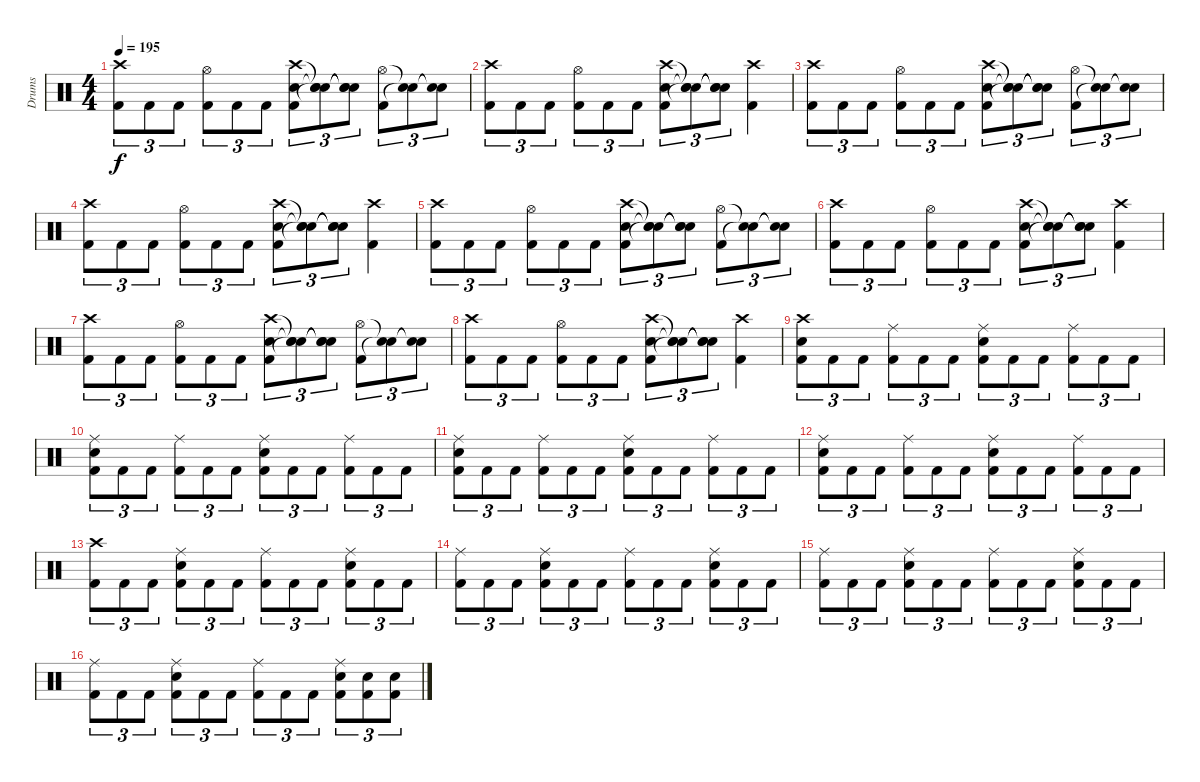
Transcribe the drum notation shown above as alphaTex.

\track ("Drums" "Drums") {instrument percussion}
\staff {score}
\articulation defaults
\ts (4 4)
\tempo 195
\clef neutral
\ks c
("Crash high (hit)" "Kick (hit) 2").8{tu (3 2) dy f} "Kick (hit) 2".8{tu (3 2)} "Kick (hit) 2".8{tu (3 2)} ("Hi-Hat (open)" "Kick (hit) 2").8{tu (3 2)} "Kick (hit) 2".8{tu (3 2)} "Kick (hit) 2".8{tu (3 2)} ("Crash high (hit)" "Snare (hit) 2" "Kick (hit) 2").8{tu (3 2)} ("Snare (hit)"{t} "Snare (hit)"{t} "Snare (hit)"{t}).8{tu (3 2)} ("Snare (hit)"{t} "Snare (hit)"{t} "Snare (hit)"{t}).8{tu (3 2)} ("Hi-Hat (open)" "Kick (hit) 2").8{tu (3 2)} ("Snare (hit)"{t} "Snare (hit)"{t}).8{tu (3 2)} ("Snare (hit)"{t} "Snare (hit)"{t}).8{tu (3 2)} |
("Crash high (hit)" "Kick (hit) 2").8{tu (3 2)} "Kick (hit) 2".8{tu (3 2)} "Kick (hit) 2".8{tu (3 2)} ("Hi-Hat (open)" "Kick (hit) 2").8{tu (3 2)} "Kick (hit) 2".8{tu (3 2)} "Kick (hit) 2".8{tu (3 2)} ("Crash high (hit)" "Snare (hit) 2" "Kick (hit) 2").8{tu (3 2)} ("Snare (hit)"{t} "Snare (hit)"{t} "Snare (hit)"{t}).8{tu (3 2)} ("Snare (hit)"{t} "Snare (hit)"{t} "Snare (hit)"{t}).8{tu (3 2)} ("Crash high (hit)" "Kick (hit) 2").4 |
("Crash high (hit)" "Kick (hit) 2").8{tu (3 2)} "Kick (hit) 2".8{tu (3 2)} "Kick (hit) 2".8{tu (3 2)} ("Hi-Hat (open)" "Kick (hit) 2").8{tu (3 2)} "Kick (hit) 2".8{tu (3 2)} "Kick (hit) 2".8{tu (3 2)} ("Crash high (hit)" "Snare (hit) 2" "Kick (hit) 2").8{tu (3 2)} ("Snare (hit)"{t} "Snare (hit)"{t} "Snare (hit)"{t}).8{tu (3 2)} ("Snare (hit)"{t} "Snare (hit)"{t} "Snare (hit)"{t}).8{tu (3 2)} ("Hi-Hat (open)" "Kick (hit) 2").8{tu (3 2)} ("Snare (hit)"{t} "Snare (hit)"{t}).8{tu (3 2)} ("Snare (hit)"{t} "Snare (hit)"{t}).8{tu (3 2)} |
("Crash high (hit)" "Kick (hit) 2").8{tu (3 2)} "Kick (hit) 2".8{tu (3 2)} "Kick (hit) 2".8{tu (3 2)} ("Hi-Hat (open)" "Kick (hit) 2").8{tu (3 2)} "Kick (hit) 2".8{tu (3 2)} "Kick (hit) 2".8{tu (3 2)} ("Crash high (hit)" "Snare (hit) 2" "Kick (hit) 2").8{tu (3 2)} ("Snare (hit)"{t} "Snare (hit)"{t} "Snare (hit)"{t}).8{tu (3 2)} ("Snare (hit)"{t} "Snare (hit)"{t} "Snare (hit)"{t}).8{tu (3 2)} ("Crash high (hit)" "Kick (hit) 2").4 |
("Crash high (hit)" "Kick (hit) 2").8{tu (3 2)} "Kick (hit) 2".8{tu (3 2)} "Kick (hit) 2".8{tu (3 2)} ("Hi-Hat (open)" "Kick (hit) 2").8{tu (3 2)} "Kick (hit) 2".8{tu (3 2)} "Kick (hit) 2".8{tu (3 2)} ("Crash high (hit)" "Snare (hit) 2" "Kick (hit) 2").8{tu (3 2)} ("Snare (hit)"{t} "Snare (hit)"{t} "Snare (hit)"{t}).8{tu (3 2)} ("Snare (hit)"{t} "Snare (hit)"{t} "Snare (hit)"{t}).8{tu (3 2)} ("Hi-Hat (open)" "Kick (hit) 2").8{tu (3 2)} ("Snare (hit)"{t} "Snare (hit)"{t}).8{tu (3 2)} ("Snare (hit)"{t} "Snare (hit)"{t}).8{tu (3 2)} |
("Crash high (hit)" "Kick (hit) 2").8{tu (3 2)} "Kick (hit) 2".8{tu (3 2)} "Kick (hit) 2".8{tu (3 2)} ("Hi-Hat (open)" "Kick (hit) 2").8{tu (3 2)} "Kick (hit) 2".8{tu (3 2)} "Kick (hit) 2".8{tu (3 2)} ("Crash high (hit)" "Snare (hit) 2" "Kick (hit) 2").8{tu (3 2)} ("Snare (hit)"{t} "Snare (hit)"{t} "Snare (hit)"{t}).8{tu (3 2)} ("Snare (hit)"{t} "Snare (hit)"{t} "Snare (hit)"{t}).8{tu (3 2)} ("Crash high (hit)" "Kick (hit) 2").4 |
("Crash high (hit)" "Kick (hit) 2").8{tu (3 2)} "Kick (hit) 2".8{tu (3 2)} "Kick (hit) 2".8{tu (3 2)} ("Hi-Hat (open)" "Kick (hit) 2").8{tu (3 2)} "Kick (hit) 2".8{tu (3 2)} "Kick (hit) 2".8{tu (3 2)} ("Crash high (hit)" "Snare (hit) 2" "Kick (hit) 2").8{tu (3 2)} ("Snare (hit)"{t} "Snare (hit)"{t} "Snare (hit)"{t}).8{tu (3 2)} ("Snare (hit)"{t} "Snare (hit)"{t} "Snare (hit)"{t}).8{tu (3 2)} ("Hi-Hat (open)" "Kick (hit) 2").8{tu (3 2)} ("Snare (hit)"{t} "Snare (hit)"{t}).8{tu (3 2)} ("Snare (hit)"{t} "Snare (hit)"{t}).8{tu (3 2)} |
("Crash high (hit)" "Kick (hit) 2").8{tu (3 2)} "Kick (hit) 2".8{tu (3 2)} "Kick (hit) 2".8{tu (3 2)} ("Hi-Hat (open)" "Kick (hit) 2").8{tu (3 2)} "Kick (hit) 2".8{tu (3 2)} "Kick (hit) 2".8{tu (3 2)} ("Crash high (hit)" "Snare (hit) 2" "Kick (hit) 2").8{tu (3 2)} ("Snare (hit)"{t} "Snare (hit)"{t} "Snare (hit)"{t}).8{tu (3 2)} ("Snare (hit)"{t} "Snare (hit)"{t} "Snare (hit)"{t}).8{tu (3 2)} ("Crash high (hit)" "Kick (hit) 2").4 |
("Crash high (hit)" "Snare (hit) 2" "Kick (hit) 2").8{tu (3 2)} "Kick (hit) 2".8{tu (3 2)} "Kick (hit) 2".8{tu (3 2)} ("Ride (middle)" "Kick (hit) 2").8{tu (3 2)} "Kick (hit) 2".8{tu (3 2)} "Kick (hit) 2".8{tu (3 2)} ("Ride (middle)" "Snare (hit) 2" "Kick (hit) 2").8{tu (3 2)} "Kick (hit) 2".8{tu (3 2)} "Kick (hit) 2".8{tu (3 2)} ("Ride (middle)" "Kick (hit) 2").8{tu (3 2)} "Kick (hit) 2".8{tu (3 2)} "Kick (hit) 2".8{tu (3 2)} |
("Ride (middle)" "Snare (hit) 2" "Kick (hit) 2").8{tu (3 2)} "Kick (hit) 2".8{tu (3 2)} "Kick (hit) 2".8{tu (3 2)} ("Ride (middle)" "Kick (hit) 2").8{tu (3 2)} "Kick (hit) 2".8{tu (3 2)} "Kick (hit) 2".8{tu (3 2)} ("Ride (middle)" "Snare (hit) 2" "Kick (hit) 2").8{tu (3 2)} "Kick (hit) 2".8{tu (3 2)} "Kick (hit) 2".8{tu (3 2)} ("Ride (middle)" "Kick (hit) 2").8{tu (3 2)} "Kick (hit) 2".8{tu (3 2)} "Kick (hit) 2".8{tu (3 2)} |
("Ride (middle)" "Snare (hit) 2" "Kick (hit) 2").8{tu (3 2)} "Kick (hit) 2".8{tu (3 2)} "Kick (hit) 2".8{tu (3 2)} ("Ride (middle)" "Kick (hit) 2").8{tu (3 2)} "Kick (hit) 2".8{tu (3 2)} "Kick (hit) 2".8{tu (3 2)} ("Ride (middle)" "Snare (hit) 2" "Kick (hit) 2").8{tu (3 2)} "Kick (hit) 2".8{tu (3 2)} "Kick (hit) 2".8{tu (3 2)} ("Ride (middle)" "Kick (hit) 2").8{tu (3 2)} "Kick (hit) 2".8{tu (3 2)} "Kick (hit) 2".8{tu (3 2)} |
("Ride (middle)" "Snare (hit) 2" "Kick (hit) 2").8{tu (3 2)} "Kick (hit) 2".8{tu (3 2)} "Kick (hit) 2".8{tu (3 2)} ("Ride (middle)" "Kick (hit) 2").8{tu (3 2)} "Kick (hit) 2".8{tu (3 2)} "Kick (hit) 2".8{tu (3 2)} ("Ride (middle)" "Snare (hit) 2" "Kick (hit) 2").8{tu (3 2)} "Kick (hit) 2".8{tu (3 2)} "Kick (hit) 2".8{tu (3 2)} ("Ride (middle)" "Kick (hit) 2").8{tu (3 2)} "Kick (hit) 2".8{tu (3 2)} "Kick (hit) 2".8{tu (3 2)} |
("Crash high (hit)" "Kick (hit) 2").8{tu (3 2)} "Kick (hit) 2".8{tu (3 2)} "Kick (hit) 2".8{tu (3 2)} ("Ride (middle)" "Snare (hit) 2" "Kick (hit) 2").8{tu (3 2)} "Kick (hit) 2".8{tu (3 2)} "Kick (hit) 2".8{tu (3 2)} ("Ride (middle)" "Kick (hit) 2").8{tu (3 2)} "Kick (hit) 2".8{tu (3 2)} "Kick (hit) 2".8{tu (3 2)} ("Ride (middle)" "Snare (hit) 2" "Kick (hit) 2").8{tu (3 2)} "Kick (hit) 2".8{tu (3 2)} "Kick (hit) 2".8{tu (3 2)} |
("Ride (middle)" "Kick (hit) 2").8{tu (3 2)} "Kick (hit) 2".8{tu (3 2)} "Kick (hit) 2".8{tu (3 2)} ("Ride (middle)" "Snare (hit) 2" "Kick (hit) 2").8{tu (3 2)} "Kick (hit) 2".8{tu (3 2)} "Kick (hit) 2".8{tu (3 2)} ("Ride (middle)" "Kick (hit) 2").8{tu (3 2)} "Kick (hit) 2".8{tu (3 2)} "Kick (hit) 2".8{tu (3 2)} ("Ride (middle)" "Snare (hit) 2" "Kick (hit) 2").8{tu (3 2)} "Kick (hit) 2".8{tu (3 2)} "Kick (hit) 2".8{tu (3 2)} |
("Ride (middle)" "Kick (hit) 2").8{tu (3 2)} "Kick (hit) 2".8{tu (3 2)} "Kick (hit) 2".8{tu (3 2)} ("Ride (middle)" "Snare (hit) 2" "Kick (hit) 2").8{tu (3 2)} "Kick (hit) 2".8{tu (3 2)} "Kick (hit) 2".8{tu (3 2)} ("Ride (middle)" "Kick (hit) 2").8{tu (3 2)} "Kick (hit) 2".8{tu (3 2)} "Kick (hit) 2".8{tu (3 2)} ("Ride (middle)" "Snare (hit) 2" "Kick (hit) 2").8{tu (3 2)} "Kick (hit) 2".8{tu (3 2)} "Kick (hit) 2".8{tu (3 2)} |
("Ride (middle)" "Kick (hit) 2").8{tu (3 2)} "Kick (hit) 2".8{tu (3 2)} "Kick (hit) 2".8{tu (3 2)} ("Ride (middle)" "Snare (hit) 2" "Kick (hit) 2").8{tu (3 2)} "Kick (hit) 2".8{tu (3 2)} "Kick (hit) 2".8{tu (3 2)} ("Ride (middle)" "Kick (hit) 2").8{tu (3 2)} "Kick (hit) 2".8{tu (3 2)} "Kick (hit) 2".8{tu (3 2)} ("Ride (middle)" "Snare (hit) 2" "Kick (hit) 2").8{tu (3 2)} ("Snare (hit) 2" "Kick (hit) 2").8{tu (3 2)} ("Snare (hit) 2" "Kick (hit) 2").8{tu (3 2)}
